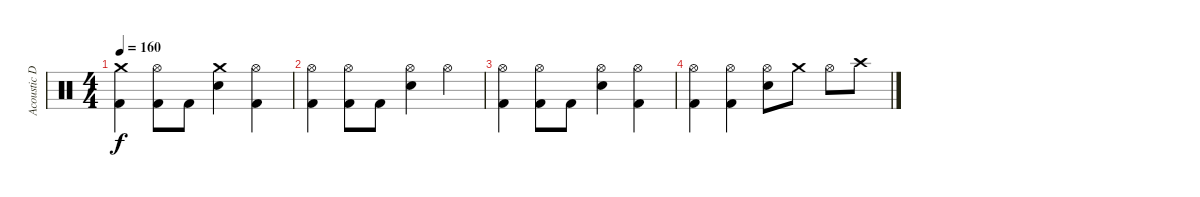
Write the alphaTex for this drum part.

\track ("Acoustic Drums" "Acoustic D") {instrument percussion}
\staff {score}
\articulation defaults
\ts (4 4)
\tempo 160
\clef neutral
\ks c
("Crash medium (hit)" "Kick (hit) 2").4{dy f volume 0} ("Hi-Hat (open)" "Kick (hit) 2").8 "Kick (hit) 2".8 ("Crash medium (hit)" "Snare (hit) 2").4 ("Hi-Hat (open)" "Kick (hit) 2").4 |
("Hi-Hat (open)" "Kick (hit) 2").4 ("Hi-Hat (open)" "Kick (hit) 2").8 "Kick (hit) 2".8 ("Hi-Hat (open)" "Snare (hit) 2").4 "Hi-Hat (open)".4 |
("Hi-Hat (open)" "Kick (hit) 2").4 ("Hi-Hat (open)" "Kick (hit) 2").8 "Kick (hit) 2".8 ("Hi-Hat (open)" "Snare (hit) 2").4 ("Hi-Hat (open)" "Kick (hit) 2").4 |
("Hi-Hat (open)" "Kick (hit) 2").4 ("Hi-Hat (open)" "Kick (hit) 2").4 ("Hi-Hat (open)" "Snare (hit) 2").8 "Crash medium (hit)".8 "Hi-Hat (open)".8 "Crash high (hit)".8
